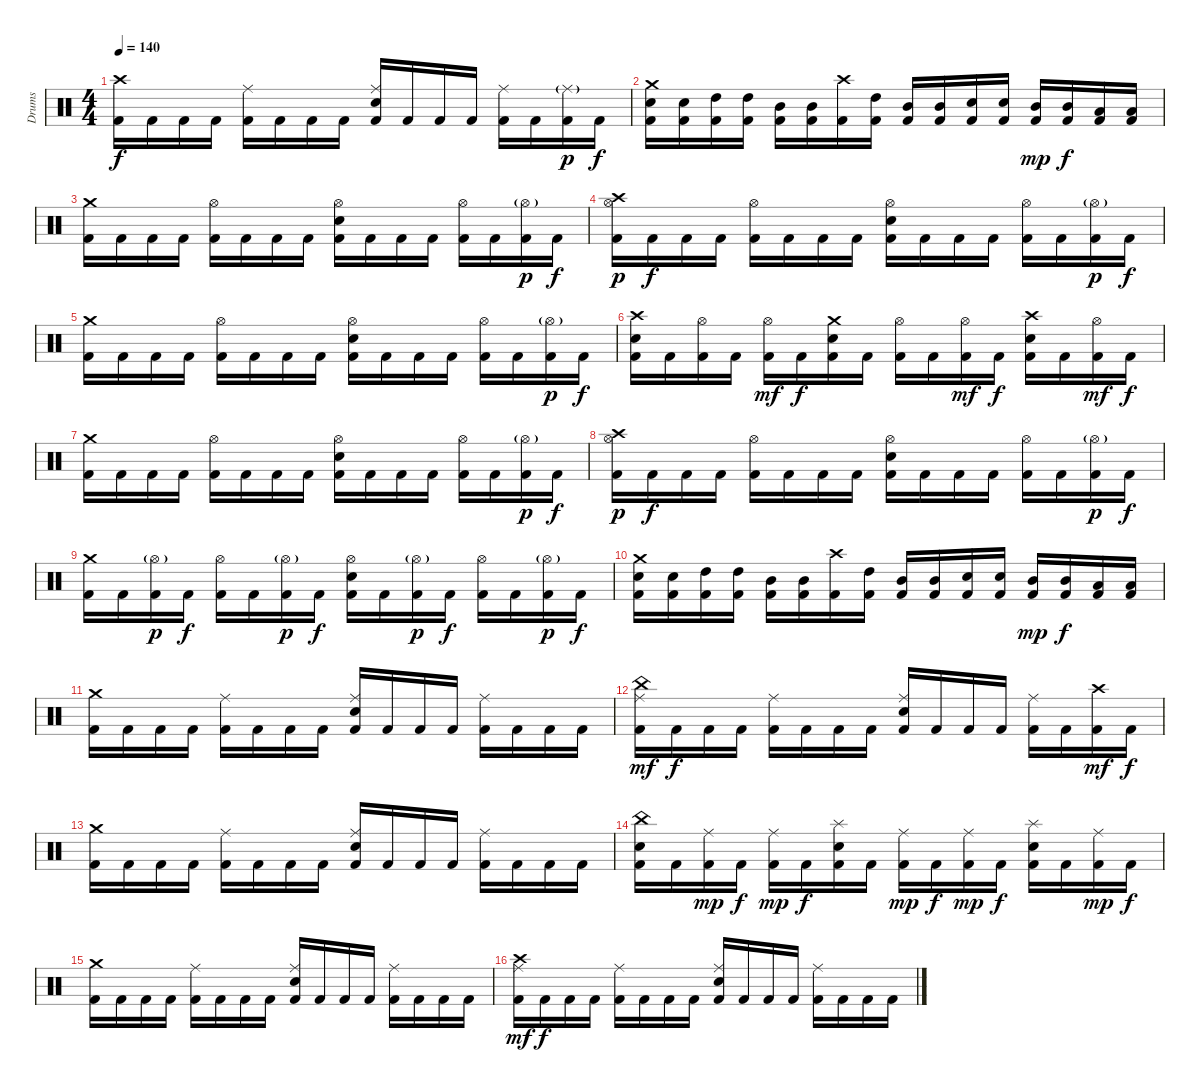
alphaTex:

\track ("Drums" "Drums") {instrument percussion}
\staff {score}
\articulation defaults
\ts (4 4)
\tempo 140
\clef neutral
\ks c
("Crash high (hit)" "Kick (hit) 2").16{dy f} "Kick (hit) 2".16 "Kick (hit) 2".16 "Kick (hit) 2".16 ("Ride (middle)" "Kick (hit) 2").16 "Kick (hit) 2".16 "Kick (hit) 2".16 "Kick (hit) 2".16 ("Ride (middle)" "Electric Snare (hit)" "Kick (hit) 2").16 "Kick (hit) 2".16 "Kick (hit) 2".16 "Kick (hit) 2".16 ("Ride (middle)" "Kick (hit) 2").16 "Kick (hit) 2".16 ("Ride (middle)"{g} "Kick (hit) 2").16{dy p} "Kick (hit) 2".16{dy f} |
("Crash medium (hit)" "Electric Snare (hit)" "Kick (hit) 2").16 ("Electric Snare (hit)" "Kick (hit) 2").16 ("High Tom (hit)" "Kick (hit) 2").16 ("High Tom (hit)" "Kick (hit) 2").16 ("Mid Tom (hit)" "Kick (hit) 2").16 ("Mid Tom (hit)" "Kick (hit) 2").16 ("Crash high (hit)" "Kick (hit) 2").16 ("High Tom (hit)" "Kick (hit) 2").16 ("Mid Tom (hit)" "Kick (hit) 2").16 ("Mid Tom (hit)" "Kick (hit) 2").16 ("Electric Snare (hit)" "Kick (hit) 2").16 ("Electric Snare (hit)" "Kick (hit) 2").16 ("Mid Tom (hit)" "Kick (hit) 2").16{dy mp} ("Mid Tom (hit)" "Kick (hit) 2").16{dy f} ("Low Tom (hit)" "Kick (hit) 2").16 ("Low Tom (hit)" "Kick (hit) 2").16 |
("Crash medium (hit)" "Kick (hit) 2").16 "Kick (hit) 2".16 "Kick (hit) 2".16 "Kick (hit) 2".16 ("Hi-Hat (open)" "Kick (hit) 2").16 "Kick (hit) 2".16 "Kick (hit) 2".16 "Kick (hit) 2".16 ("Hi-Hat (open)" "Electric Snare (hit)" "Kick (hit) 2").16 "Kick (hit) 2".16 "Kick (hit) 2".16 "Kick (hit) 2".16 ("Hi-Hat (open)" "Kick (hit) 2").16 "Kick (hit) 2".16 ("Hi-Hat (open)"{g} "Kick (hit) 2").16{dy p} "Kick (hit) 2".16{dy f} |
("Crash high (hit)" "Hi-Hat (open)" "Kick (hit) 2").16{dy p} "Kick (hit) 2".16{dy f} "Kick (hit) 2".16 "Kick (hit) 2".16 ("Hi-Hat (open)" "Kick (hit) 2").16 "Kick (hit) 2".16 "Kick (hit) 2".16 "Kick (hit) 2".16 ("Hi-Hat (open)" "Electric Snare (hit)" "Kick (hit) 2").16 "Kick (hit) 2".16 "Kick (hit) 2".16 "Kick (hit) 2".16 ("Hi-Hat (open)" "Kick (hit) 2").16 "Kick (hit) 2".16 ("Hi-Hat (open)"{g} "Kick (hit) 2").16{dy p} "Kick (hit) 2".16{dy f} |
("Crash medium (hit)" "Kick (hit) 2").16 "Kick (hit) 2".16 "Kick (hit) 2".16 "Kick (hit) 2".16 ("Hi-Hat (open)" "Kick (hit) 2").16 "Kick (hit) 2".16 "Kick (hit) 2".16 "Kick (hit) 2".16 ("Hi-Hat (open)" "Electric Snare (hit)" "Kick (hit) 2").16 "Kick (hit) 2".16 "Kick (hit) 2".16 "Kick (hit) 2".16 ("Hi-Hat (open)" "Kick (hit) 2").16 "Kick (hit) 2".16 ("Hi-Hat (open)"{g} "Kick (hit) 2").16{dy p} "Kick (hit) 2".16{dy f} |
("Crash high (hit)" "Electric Snare (hit)" "Kick (hit) 2").16 "Kick (hit) 2".16 ("Hi-Hat (open)" "Kick (hit) 2").16 "Kick (hit) 2".16 ("Hi-Hat (open)" "Kick (hit) 2").16{dy mf} "Kick (hit) 2".16{dy f} ("Crash medium (hit)" "Electric Snare (hit)" "Kick (hit) 2").16 "Kick (hit) 2".16 ("Hi-Hat (open)" "Kick (hit) 2").16 "Kick (hit) 2".16 ("Hi-Hat (open)" "Kick (hit) 2").16{dy mf} "Kick (hit) 2".16{dy f} ("Crash high (hit)" "Electric Snare (hit)" "Kick (hit) 2").16 "Kick (hit) 2".16 ("Hi-Hat (open)" "Kick (hit) 2").16{dy mf} "Kick (hit) 2".16{dy f} |
("Crash medium (hit)" "Kick (hit) 2").16 "Kick (hit) 2".16 "Kick (hit) 2".16 "Kick (hit) 2".16 ("Hi-Hat (open)" "Kick (hit) 2").16 "Kick (hit) 2".16 "Kick (hit) 2".16 "Kick (hit) 2".16 ("Hi-Hat (open)" "Electric Snare (hit)" "Kick (hit) 2").16 "Kick (hit) 2".16 "Kick (hit) 2".16 "Kick (hit) 2".16 ("Hi-Hat (open)" "Kick (hit) 2").16 "Kick (hit) 2".16 ("Hi-Hat (open)"{g} "Kick (hit) 2").16{dy p} "Kick (hit) 2".16{dy f} |
("Crash high (hit)" "Hi-Hat (open)" "Kick (hit) 2").16{dy p} "Kick (hit) 2".16{dy f} "Kick (hit) 2".16 "Kick (hit) 2".16 ("Hi-Hat (open)" "Kick (hit) 2").16 "Kick (hit) 2".16 "Kick (hit) 2".16 "Kick (hit) 2".16 ("Hi-Hat (open)" "Electric Snare (hit)" "Kick (hit) 2").16 "Kick (hit) 2".16 "Kick (hit) 2".16 "Kick (hit) 2".16 ("Hi-Hat (open)" "Kick (hit) 2").16 "Kick (hit) 2".16 ("Hi-Hat (open)"{g} "Kick (hit) 2").16{dy p} "Kick (hit) 2".16{dy f} |
("Crash medium (hit)" "Kick (hit) 2").16 "Kick (hit) 2".16 ("Hi-Hat (open)"{g} "Kick (hit) 2").16{dy p} "Kick (hit) 2".16{dy f} ("Hi-Hat (open)" "Kick (hit) 2").16 "Kick (hit) 2".16 ("Hi-Hat (open)"{g} "Kick (hit) 2").16{dy p} "Kick (hit) 2".16{dy f} ("Hi-Hat (open)" "Electric Snare (hit)" "Kick (hit) 2").16 "Kick (hit) 2".16 ("Hi-Hat (open)"{g} "Kick (hit) 2").16{dy p} "Kick (hit) 2".16{dy f} ("Hi-Hat (open)" "Kick (hit) 2").16 "Kick (hit) 2".16 ("Hi-Hat (open)"{g} "Kick (hit) 2").16{dy p} "Kick (hit) 2".16{dy f} |
("Crash medium (hit)" "Electric Snare (hit)" "Kick (hit) 2").16 ("Electric Snare (hit)" "Kick (hit) 2").16 ("High Tom (hit)" "Kick (hit) 2").16 ("High Tom (hit)" "Kick (hit) 2").16 ("Mid Tom (hit)" "Kick (hit) 2").16 ("Mid Tom (hit)" "Kick (hit) 2").16 ("Crash high (hit)" "Kick (hit) 2").16 ("High Tom (hit)" "Kick (hit) 2").16 ("Mid Tom (hit)" "Kick (hit) 2").16 ("Mid Tom (hit)" "Kick (hit) 2").16 ("Electric Snare (hit)" "Kick (hit) 2").16 ("Electric Snare (hit)" "Kick (hit) 2").16 ("Mid Tom (hit)" "Kick (hit) 2").16{dy mp} ("Mid Tom (hit)" "Kick (hit) 2").16{dy f} ("Low Tom (hit)" "Kick (hit) 2").16 ("Low Tom (hit)" "Kick (hit) 2").16 |
("Crash medium (hit)" "Kick (hit) 2").16 "Kick (hit) 2".16 "Kick (hit) 2".16 "Kick (hit) 2".16 ("Ride (middle)" "Kick (hit) 2").16 "Kick (hit) 2".16 "Kick (hit) 2".16 "Kick (hit) 2".16 ("Ride (middle)" "Electric Snare (hit)" "Kick (hit) 2").16 "Kick (hit) 2".16 "Kick (hit) 2".16 "Kick (hit) 2".16 ("Ride (middle)" "Kick (hit) 2").16 "Kick (hit) 2".16 "Kick (hit) 2".16 "Kick (hit) 2".16 |
("China (hit)" "Ride (middle)" "Kick (hit) 2").16{dy mf} "Kick (hit) 2".16{dy f} "Kick (hit) 2".16 "Kick (hit) 2".16 ("Ride (middle)" "Kick (hit) 2").16 "Kick (hit) 2".16 "Kick (hit) 2".16 "Kick (hit) 2".16 ("Ride (middle)" "Electric Snare (hit)" "Kick (hit) 2").16 "Kick (hit) 2".16 "Kick (hit) 2".16 "Kick (hit) 2".16 ("Ride (middle)" "Kick (hit) 2").16 "Kick (hit) 2".16 ("Crash high (hit)" "Kick (hit) 2").16{dy mf} "Kick (hit) 2".16{dy f} |
("Crash medium (hit)" "Kick (hit) 2").16 "Kick (hit) 2".16 "Kick (hit) 2".16 "Kick (hit) 2".16 ("Ride (middle)" "Kick (hit) 2").16 "Kick (hit) 2".16 "Kick (hit) 2".16 "Kick (hit) 2".16 ("Ride (middle)" "Electric Snare (hit)" "Kick (hit) 2").16 "Kick (hit) 2".16 "Kick (hit) 2".16 "Kick (hit) 2".16 ("Ride (middle)" "Kick (hit) 2").16 "Kick (hit) 2".16 "Kick (hit) 2".16 "Kick (hit) 2".16 |
("China (hit)" "Electric Snare (hit)" "Kick (hit) 2").16 "Kick (hit) 2".16 ("Ride (middle)" "Kick (hit) 2").16{dy mp} "Kick (hit) 2".16{dy f} ("Ride (middle)" "Kick (hit) 2").16{dy mp} "Kick (hit) 2".16{dy f} ("Splash (hit)" "Electric Snare (hit)" "Kick (hit) 2").16 "Kick (hit) 2".16 ("Ride (middle)" "Kick (hit) 2").16{dy mp} "Kick (hit) 2".16{dy f} ("Ride (middle)" "Kick (hit) 2").16{dy mp} "Kick (hit) 2".16{dy f} ("Splash (hit)" "Electric Snare (hit)" "Kick (hit) 2").16 "Kick (hit) 2".16 ("Ride (middle)" "Kick (hit) 2").16{dy mp} "Kick (hit) 2".16{dy f} |
("Crash medium (hit)" "Kick (hit) 2").16 "Kick (hit) 2".16 "Kick (hit) 2".16 "Kick (hit) 2".16 ("Ride (middle)" "Kick (hit) 2").16 "Kick (hit) 2".16 "Kick (hit) 2".16 "Kick (hit) 2".16 ("Ride (middle)" "Electric Snare (hit)" "Kick (hit) 2").16 "Kick (hit) 2".16 "Kick (hit) 2".16 "Kick (hit) 2".16 ("Ride (middle)" "Kick (hit) 2").16 "Kick (hit) 2".16 "Kick (hit) 2".16 "Kick (hit) 2".16 |
("Crash high (hit)" "Ride (middle)" "Kick (hit) 2").16{dy mf} "Kick (hit) 2".16{dy f} "Kick (hit) 2".16 "Kick (hit) 2".16 ("Ride (middle)" "Kick (hit) 2").16 "Kick (hit) 2".16 "Kick (hit) 2".16 "Kick (hit) 2".16 ("Ride (middle)" "Electric Snare (hit)" "Kick (hit) 2").16 "Kick (hit) 2".16 "Kick (hit) 2".16 "Kick (hit) 2".16 ("Ride (middle)" "Kick (hit) 2").16 "Kick (hit) 2".16 "Kick (hit) 2".16 "Kick (hit) 2".16
